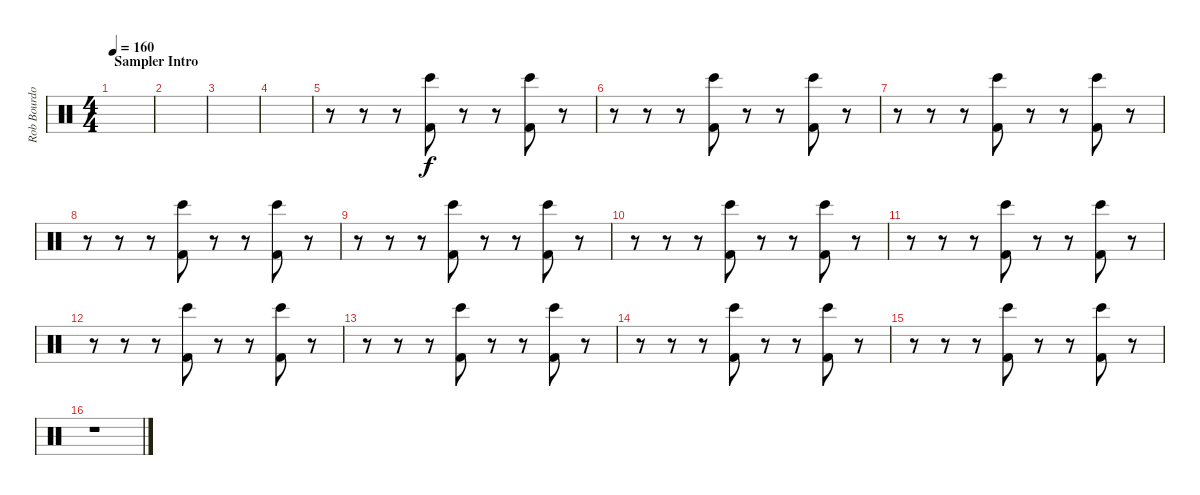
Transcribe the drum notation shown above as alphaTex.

\track ("Rob Bourdon (Drums)" "Rob Bourdo") {instrument percussion}
\staff {score}
\articulation defaults
\ts (4 4)
\section ("" "Sampler Intro")
\tempo 160
\clef neutral
\ks c
|
|
|
|
r.8 r.8 r.8 ("Bongo High (hit)" "Kick (hit) 2").8 r.8 r.8 ("Bongo High (hit)" "Kick (hit) 2").8 r.8 |
r.8 r.8 r.8 ("Bongo High (hit)" "Kick (hit) 2").8 r.8 r.8 ("Bongo High (hit)" "Kick (hit) 2").8 r.8 |
r.8 r.8 r.8 ("Bongo High (hit)" "Kick (hit) 2").8 r.8 r.8 ("Bongo High (hit)" "Kick (hit) 2").8 r.8 |
r.8 r.8 r.8 ("Bongo High (hit)" "Kick (hit) 2").8 r.8 r.8 ("Bongo High (hit)" "Kick (hit) 2").8 r.8 |
r.8 r.8 r.8 ("Bongo High (hit)" "Kick (hit) 2").8 r.8 r.8 ("Bongo High (hit)" "Kick (hit) 2").8 r.8 |
r.8 r.8 r.8 ("Bongo High (hit)" "Kick (hit) 2").8 r.8 r.8 ("Bongo High (hit)" "Kick (hit) 2").8 r.8 |
r.8 r.8 r.8 ("Bongo High (hit)" "Kick (hit) 2").8 r.8 r.8 ("Bongo High (hit)" "Kick (hit) 2").8 r.8 |
r.8 r.8 r.8 ("Bongo High (hit)" "Kick (hit) 2").8 r.8 r.8 ("Bongo High (hit)" "Kick (hit) 2").8 r.8 |
r.8 r.8 r.8 ("Bongo High (hit)" "Kick (hit) 2").8 r.8 r.8 ("Bongo High (hit)" "Kick (hit) 2").8 r.8 |
r.8 r.8 r.8 ("Bongo High (hit)" "Kick (hit) 2").8 r.8 r.8 ("Bongo High (hit)" "Kick (hit) 2").8 r.8 |
r.8 r.8 r.8 ("Bongo High (hit)" "Kick (hit) 2").8 r.8 r.8 ("Bongo High (hit)" "Kick (hit) 2").8 r.8 |
r.1
